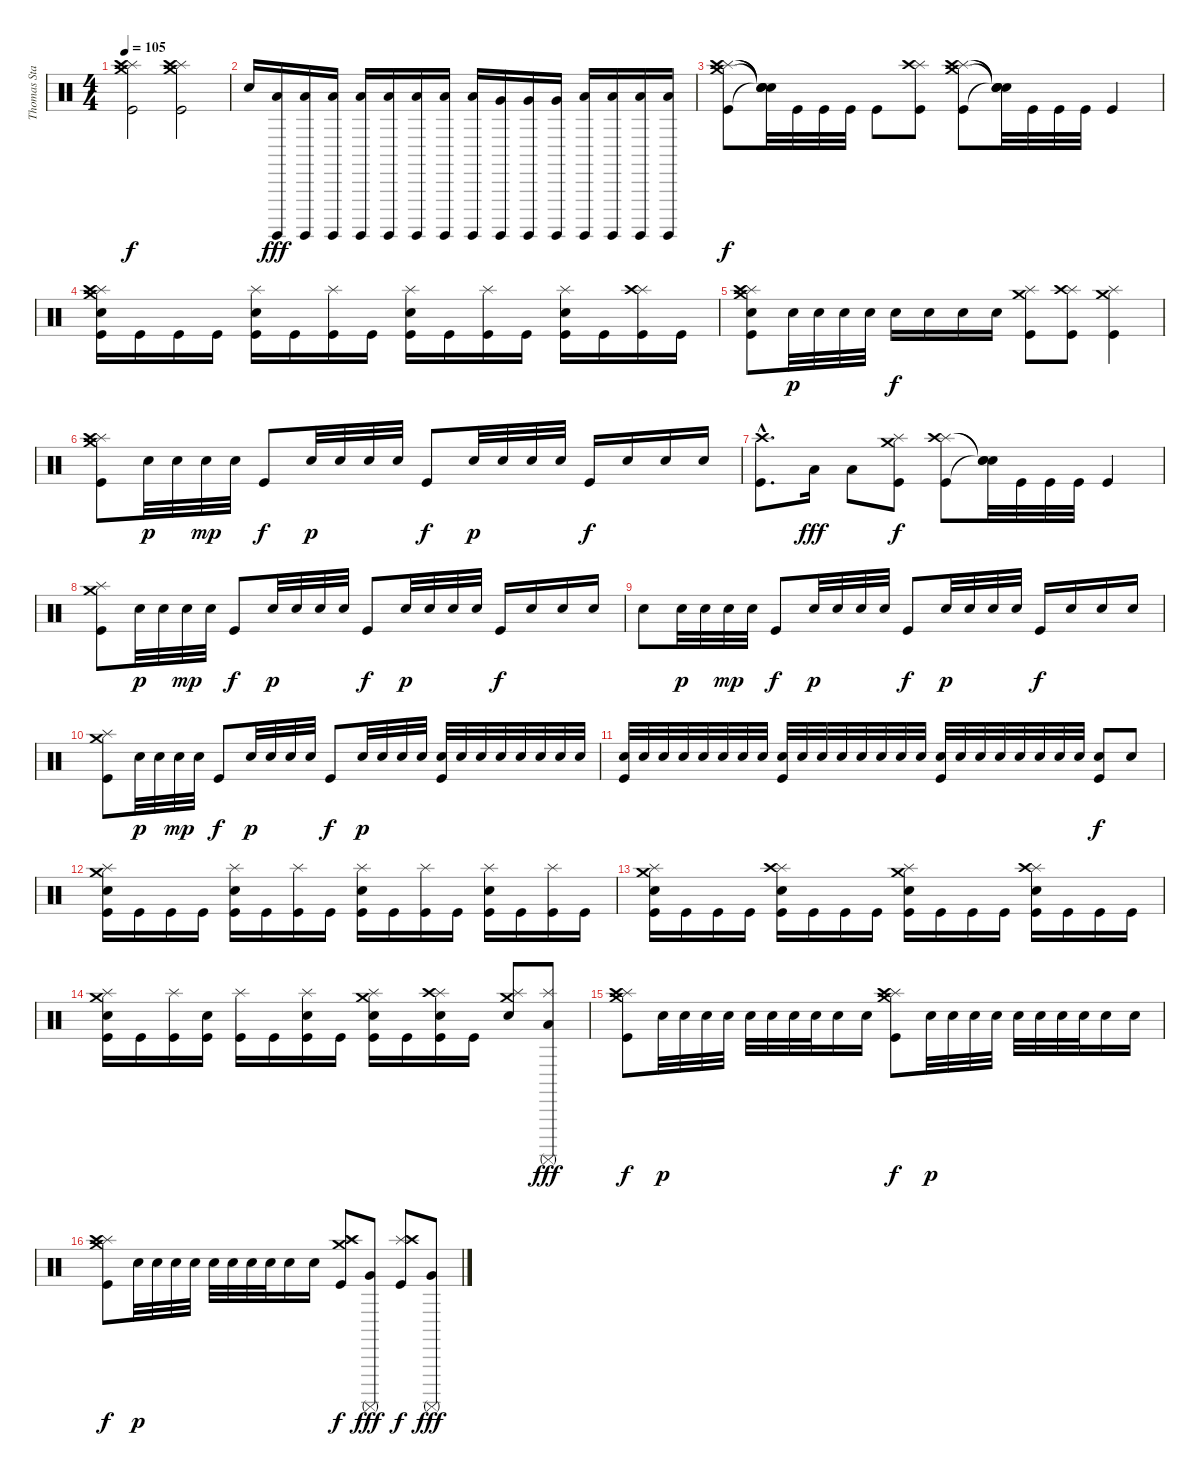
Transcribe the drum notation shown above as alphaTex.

\track ("Thomas Stauch" "Thomas Sta") {instrument percussion}
\staff {score}
\articulation defaults
\ts (4 4)
\tempo 105
\clef neutral
\ks c
("Crash medium (hit)" "Splash (hit)" "Crash high (hit)" "Kick (hit)").2{dy f} ("Crash medium (hit)" "Splash (hit)" "Crash high (hit)" "Kick (hit)").2 |
"Electric Snare (hit)".16 ("Surdo (hit)" "Low Tom (hit)").16{dy fff} ("Surdo (hit)" "Low Tom (hit)").16 ("Surdo (hit)" "Low Tom (hit)").16 ("Surdo (hit)" "Low Tom (hit)").16 ("Surdo (hit)" "Low Tom (hit)").16 ("Surdo (hit)" "Low Tom (hit)").16 ("Surdo (hit)" "Low Tom (hit)").16 ("Surdo (hit)" "Low Tom (hit)").16 ("Surdo (hit)" "Very Low Tom (hit)").16 ("Surdo (hit)" "Very Low Tom (hit)").16 ("Surdo (hit)" "Very Low Tom (hit)").16 ("Surdo (hit)" "Low Tom (hit)").16 ("Surdo (hit)" "Low Floor Tom (hit)").16 ("Surdo (hit)" "Low Floor Tom (hit)").16 ("Surdo (hit)" "Low Floor Tom (hit)").16 |
("Crash medium (hit)" "Splash (hit)" "Crash high (hit)" "Kick (hit)").8{dy f} ("Snare (hit)"{t} "Snare (hit)"{t} "Snare (hit)"{t} "Snare (hit)"{t}).32 "Kick (hit)".32 "Kick (hit)".32 "Kick (hit)".32 "Kick (hit)".8 ("Splash (hit)" "Crash high (hit)" "Kick (hit)").8 ("Crash medium (hit)" "Splash (hit)" "Crash high (hit)" "Kick (hit)").8 ("Snare (hit)"{t} "Snare (hit)"{t} "Snare (hit)"{t} "Snare (hit)"{t}).32 "Kick (hit)".32 "Kick (hit)".32 "Kick (hit)".32 "Kick (hit)".4 |
("Crash medium (hit)" "Splash (hit)" "Crash high (hit)" "Electric Snare (hit)" "Kick (hit)").16 "Kick (hit)".16 "Kick (hit)".16 "Kick (hit)".16 ("Splash (hit)" "Electric Snare (hit)" "Kick (hit)").16 "Kick (hit)".16 ("Splash (hit)" "Kick (hit)").16 "Kick (hit)".16 ("Splash (hit)" "Electric Snare (hit)" "Kick (hit)").16 "Kick (hit)".16 ("Splash (hit)" "Kick (hit)").16 "Kick (hit)".16 ("Splash (hit)" "Electric Snare (hit)" "Kick (hit)").16 "Kick (hit)".16 ("Splash (hit)" "Crash high (hit)" "Kick (hit)").16 "Kick (hit)".16 |
("Crash medium (hit)" "Splash (hit)" "Crash high (hit)" "Electric Snare (hit)" "Kick (hit)").8 "Electric Snare (hit)".32{dy p} "Electric Snare (hit)".32 "Electric Snare (hit)".32 "Electric Snare (hit)".32 "Electric Snare (hit)".16{dy f} "Electric Snare (hit)".16 "Electric Snare (hit)".16 "Electric Snare (hit)".16 ("Crash medium (hit)" "Splash (hit)" "Kick (hit)").8 ("Splash (hit)" "Crash high (hit)" "Kick (hit)").8 ("Crash medium (hit)" "Splash (hit)" "Kick (hit)").4 |
("Crash medium (hit)" "Splash (hit)" "Crash high (hit)" "Kick (hit)").8 "Electric Snare (hit)".32{dy p} "Electric Snare (hit)".32 "Electric Snare (hit)".32{dy mp} "Electric Snare (hit)".32 "Kick (hit)".8{dy f} "Electric Snare (hit)".32{dy p} "Electric Snare (hit)".32 "Electric Snare (hit)".32 "Electric Snare (hit)".32 "Kick (hit)".8{dy f} "Electric Snare (hit)".32{dy p} "Electric Snare (hit)".32 "Electric Snare (hit)".32 "Electric Snare (hit)".32 "Kick (hit)".16{dy f} "Electric Snare (hit)".16 "Electric Snare (hit)".16 "Electric Snare (hit)".16 |
("Crash high (hit)"{hac} "Kick (hit)"{hac}).8{d} "Low Floor Tom (hit)".16{dy fff} "Low Floor Tom (hit)".8 ("Crash medium (hit)" "Splash (hit)" "Kick (hit)").8{dy f} ("Splash (hit)" "Crash high (hit)" "Kick (hit)").8 ("Snare (hit)"{t} "Snare (hit)"{t} "Snare (hit)"{t}).32 "Kick (hit)".32 "Kick (hit)".32 "Kick (hit)".32 "Kick (hit)".4 |
("Crash medium (hit)" "Splash (hit)" "Kick (hit)").8 "Electric Snare (hit)".32{dy p} "Electric Snare (hit)".32 "Electric Snare (hit)".32{dy mp} "Electric Snare (hit)".32 "Kick (hit)".8{dy f} "Electric Snare (hit)".32{dy p} "Electric Snare (hit)".32 "Electric Snare (hit)".32 "Electric Snare (hit)".32 "Kick (hit)".8{dy f} "Electric Snare (hit)".32{dy p} "Electric Snare (hit)".32 "Electric Snare (hit)".32 "Electric Snare (hit)".32 "Kick (hit)".16{dy f} "Electric Snare (hit)".16 "Electric Snare (hit)".16 "Electric Snare (hit)".16 |
"Electric Snare (hit)".8 "Electric Snare (hit)".32{dy p} "Electric Snare (hit)".32 "Electric Snare (hit)".32{dy mp} "Electric Snare (hit)".32 "Kick (hit)".8{dy f} "Electric Snare (hit)".32{dy p} "Electric Snare (hit)".32 "Electric Snare (hit)".32 "Electric Snare (hit)".32 "Kick (hit)".8{dy f} "Electric Snare (hit)".32{dy p} "Electric Snare (hit)".32 "Electric Snare (hit)".32 "Electric Snare (hit)".32 "Kick (hit)".16{dy f} "Electric Snare (hit)".16 "Electric Snare (hit)".16 "Electric Snare (hit)".16 |
("Crash medium (hit)" "Splash (hit)" "Kick (hit)").8 "Electric Snare (hit)".32{dy p} "Electric Snare (hit)".32 "Electric Snare (hit)".32{dy mp} "Electric Snare (hit)".32 "Kick (hit)".8{dy f} "Electric Snare (hit)".32{dy p} "Electric Snare (hit)".32 "Electric Snare (hit)".32 "Electric Snare (hit)".32 "Kick (hit)".8{dy f} "Electric Snare (hit)".32{dy p} "Electric Snare (hit)".32 "Electric Snare (hit)".32 "Electric Snare (hit)".32 ("Electric Snare (hit)" "Kick (hit)").32 "Electric Snare (hit)".32 "Electric Snare (hit)".32 "Electric Snare (hit)".32 "Electric Snare (hit)".32 "Electric Snare (hit)".32 "Electric Snare (hit)".32 "Electric Snare (hit)".32 |
("Electric Snare (hit)" "Kick (hit)").32 "Electric Snare (hit)".32 "Electric Snare (hit)".32 "Electric Snare (hit)".32 "Electric Snare (hit)".32 "Electric Snare (hit)".32 "Electric Snare (hit)".32 "Electric Snare (hit)".32 ("Electric Snare (hit)" "Kick (hit)").32 "Electric Snare (hit)".32 "Electric Snare (hit)".32 "Electric Snare (hit)".32 "Electric Snare (hit)".32 "Electric Snare (hit)".32 "Electric Snare (hit)".32 "Electric Snare (hit)".32 ("Electric Snare (hit)" "Kick (hit)").32 "Electric Snare (hit)".32 "Electric Snare (hit)".32 "Electric Snare (hit)".32 "Electric Snare (hit)".32 "Electric Snare (hit)".32 "Electric Snare (hit)".32 "Electric Snare (hit)".32 ("Electric Snare (hit)" "Kick (hit)").8{dy f} "Electric Snare (hit)".8 |
("Crash medium (hit)" "Splash (hit)" "Electric Snare (hit)" "Kick (hit)").16 "Kick (hit)".16 "Kick (hit)".16 "Kick (hit)".16 ("Splash (hit)" "Electric Snare (hit)" "Kick (hit)").16 "Kick (hit)".16 ("Splash (hit)" "Kick (hit)").16 "Kick (hit)".16 ("Splash (hit)" "Electric Snare (hit)" "Kick (hit)").16 "Kick (hit)".16 ("Splash (hit)" "Kick (hit)").16 "Kick (hit)".16 ("Splash (hit)" "Electric Snare (hit)" "Kick (hit)").16 "Kick (hit)".16 ("Splash (hit)" "Kick (hit)").16 "Kick (hit)".16 |
("Crash medium (hit)" "Splash (hit)" "Electric Snare (hit)" "Kick (hit)").16 "Kick (hit)".16 "Kick (hit)".16 "Kick (hit)".16 ("Splash (hit)" "Crash high (hit)" "Electric Snare (hit)" "Kick (hit)").16 "Kick (hit)".16 "Kick (hit)".16 "Kick (hit)".16 ("Crash medium (hit)" "Splash (hit)" "Electric Snare (hit)" "Kick (hit)").16 "Kick (hit)".16 "Kick (hit)".16 "Kick (hit)".16 ("Splash (hit)" "Crash high (hit)" "Electric Snare (hit)" "Kick (hit)").16 "Kick (hit)".16 "Kick (hit)".16 "Kick (hit)".16 |
("Crash medium (hit)" "Splash (hit)" "Electric Snare (hit)" "Kick (hit)").16 "Kick (hit)".16 ("Splash (hit)" "Kick (hit)").16 ("Electric Snare (hit)" "Kick (hit)").16 ("Splash (hit)" "Kick (hit)").16 "Kick (hit)".16 ("Splash (hit)" "Electric Snare (hit)" "Kick (hit)").16 "Kick (hit)".16 ("Crash medium (hit)" "Splash (hit)" "Electric Snare (hit)" "Kick (hit)").16 "Kick (hit)".16 ("Splash (hit)" "Crash high (hit)" "Electric Snare (hit)" "Kick (hit)").16 "Kick (hit)".16 ("Crash medium (hit)" "Splash (hit)" "Electric Snare (hit)").8 ("Splash (hit)" "Surdo (mute)" "Low Floor Tom (hit)").8{dy fff} |
("Crash medium (hit)" "Splash (hit)" "Crash high (hit)" "Kick (hit)").8{dy f} "Electric Snare (hit)".32{dy p} "Electric Snare (hit)".32 "Electric Snare (hit)".32 "Electric Snare (hit)".32 "Electric Snare (hit)".32 "Electric Snare (hit)".32 "Electric Snare (hit)".32 "Electric Snare (hit)".32 "Electric Snare (hit)".16 "Electric Snare (hit)".16 ("Crash medium (hit)" "Splash (hit)" "Crash high (hit)" "Kick (hit)").8{dy f} "Electric Snare (hit)".32{dy p} "Electric Snare (hit)".32 "Electric Snare (hit)".32 "Electric Snare (hit)".32 "Electric Snare (hit)".32 "Electric Snare (hit)".32 "Electric Snare (hit)".32 "Electric Snare (hit)".32 "Electric Snare (hit)".16 "Electric Snare (hit)".16 |
("Crash medium (hit)" "Splash (hit)" "Crash high (hit)" "Kick (hit)").8{dy f} "Electric Snare (hit)".32{dy p} "Electric Snare (hit)".32 "Electric Snare (hit)".32 "Electric Snare (hit)".32 "Electric Snare (hit)".32 "Electric Snare (hit)".32 "Electric Snare (hit)".32 "Electric Snare (hit)".32 "Electric Snare (hit)".16 "Electric Snare (hit)".16 ("Crash medium (hit)" "Splash (hit)" "Crash high (hit)" "Kick (hit)").8{dy f} ("Surdo (mute)" "Very Low Tom (hit)").8{dy fff} ("Splash (hit)" "Crash high (hit)" "Kick (hit)").8{dy f} ("Surdo (mute)" "Very Low Tom (hit)").8{dy fff}
